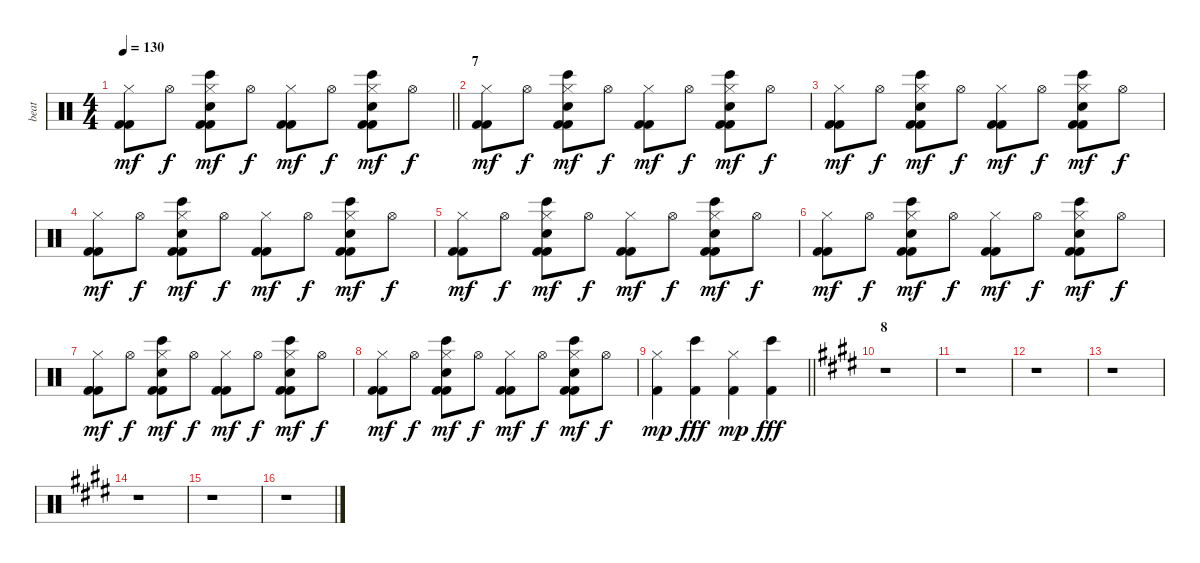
\track ("beat" "beat") {instrument percussion}
\staff {score}
\articulation defaults
\ts (4 4)
\tempo 130
\clef neutral
\barLineRight lightlight
\ks c
("Kick (hit) 2" "Kick (hit) 2" "Hi-Hat (closed)").8{dy mf} "Hi-Hat (open)".8{dy f} ("Kick (hit) 2" "Kick (hit) 2" "Bongo High (hit)" "Hand Clap (hit)" "Hi-Hat (closed)").8{dy mf} "Hi-Hat (open)".8{dy f} ("Kick (hit) 2" "Kick (hit) 2" "Hi-Hat (closed)").8{dy mf} "Hi-Hat (open)".8{dy f} ("Kick (hit) 2" "Kick (hit) 2" "Bongo High (hit)" "Hand Clap (hit)" "Hi-Hat (closed)").8{dy mf} "Hi-Hat (open)".8{dy f} |
\section ("" "7")
("Kick (hit) 2" "Kick (hit) 2" "Hi-Hat (closed)").8{dy mf} "Hi-Hat (open)".8{dy f} ("Kick (hit) 2" "Kick (hit) 2" "Bongo High (hit)" "Hand Clap (hit)" "Hi-Hat (closed)").8{dy mf} "Hi-Hat (open)".8{dy f} ("Kick (hit) 2" "Kick (hit) 2" "Hi-Hat (closed)").8{dy mf} "Hi-Hat (open)".8{dy f} ("Kick (hit) 2" "Kick (hit) 2" "Bongo High (hit)" "Hand Clap (hit)" "Hi-Hat (closed)").8{dy mf} "Hi-Hat (open)".8{dy f} |
("Kick (hit) 2" "Kick (hit) 2" "Hi-Hat (closed)").8{dy mf} "Hi-Hat (open)".8{dy f} ("Kick (hit) 2" "Kick (hit) 2" "Bongo High (hit)" "Hand Clap (hit)" "Hi-Hat (closed)").8{dy mf} "Hi-Hat (open)".8{dy f} ("Kick (hit) 2" "Kick (hit) 2" "Hi-Hat (closed)").8{dy mf} "Hi-Hat (open)".8{dy f} ("Kick (hit) 2" "Kick (hit) 2" "Bongo High (hit)" "Hand Clap (hit)" "Hi-Hat (closed)").8{dy mf} "Hi-Hat (open)".8{dy f} |
("Kick (hit) 2" "Kick (hit) 2" "Hi-Hat (closed)").8{dy mf} "Hi-Hat (open)".8{dy f} ("Kick (hit) 2" "Kick (hit) 2" "Bongo High (hit)" "Hand Clap (hit)" "Hi-Hat (closed)").8{dy mf} "Hi-Hat (open)".8{dy f} ("Kick (hit) 2" "Kick (hit) 2" "Hi-Hat (closed)").8{dy mf} "Hi-Hat (open)".8{dy f} ("Kick (hit) 2" "Kick (hit) 2" "Bongo High (hit)" "Hand Clap (hit)" "Hi-Hat (closed)").8{dy mf} "Hi-Hat (open)".8{dy f} |
("Kick (hit) 2" "Kick (hit) 2" "Hi-Hat (closed)").8{dy mf} "Hi-Hat (open)".8{dy f} ("Kick (hit) 2" "Kick (hit) 2" "Bongo High (hit)" "Hand Clap (hit)" "Hi-Hat (closed)").8{dy mf} "Hi-Hat (open)".8{dy f} ("Kick (hit) 2" "Kick (hit) 2" "Hi-Hat (closed)").8{dy mf} "Hi-Hat (open)".8{dy f} ("Kick (hit) 2" "Kick (hit) 2" "Bongo High (hit)" "Hand Clap (hit)" "Hi-Hat (closed)").8{dy mf} "Hi-Hat (open)".8{dy f} |
("Kick (hit) 2" "Kick (hit) 2" "Hi-Hat (closed)").8{dy mf} "Hi-Hat (open)".8{dy f} ("Kick (hit) 2" "Kick (hit) 2" "Bongo High (hit)" "Hand Clap (hit)" "Hi-Hat (closed)").8{dy mf} "Hi-Hat (open)".8{dy f} ("Kick (hit) 2" "Kick (hit) 2" "Hi-Hat (closed)").8{dy mf} "Hi-Hat (open)".8{dy f} ("Kick (hit) 2" "Kick (hit) 2" "Bongo High (hit)" "Hand Clap (hit)" "Hi-Hat (closed)").8{dy mf} "Hi-Hat (open)".8{dy f} |
("Kick (hit) 2" "Kick (hit) 2" "Hi-Hat (closed)").8{dy mf} "Hi-Hat (open)".8{dy f} ("Kick (hit) 2" "Kick (hit) 2" "Bongo High (hit)" "Hand Clap (hit)" "Hi-Hat (closed)").8{dy mf} "Hi-Hat (open)".8{dy f} ("Kick (hit) 2" "Kick (hit) 2" "Hi-Hat (closed)").8{dy mf} "Hi-Hat (open)".8{dy f} ("Kick (hit) 2" "Kick (hit) 2" "Bongo High (hit)" "Hand Clap (hit)" "Hi-Hat (closed)").8{dy mf} "Hi-Hat (open)".8{dy f} |
("Kick (hit) 2" "Kick (hit) 2" "Hi-Hat (closed)").8{dy mf} "Hi-Hat (open)".8{dy f} ("Kick (hit) 2" "Kick (hit) 2" "Bongo High (hit)" "Hand Clap (hit)" "Hi-Hat (closed)").8{dy mf} "Hi-Hat (open)".8{dy f} ("Kick (hit) 2" "Kick (hit) 2" "Hi-Hat (closed)").8{dy mf} "Hi-Hat (open)".8{dy f} ("Kick (hit) 2" "Kick (hit) 2" "Bongo High (hit)" "Hand Clap (hit)" "Hi-Hat (closed)").8{dy mf} "Hi-Hat (open)".8{dy f} |
\barLineRight lightlight
("Kick (hit) 2" "Hi-Hat (closed)").4{dy mp} ("Kick (hit) 2" "Bongo High (hit)").4{dy fff} ("Kick (hit) 2" "Hi-Hat (closed)").4{dy mp} ("Kick (hit) 2" "Bongo High (hit)").4{dy fff} |
\section ("" "8")
\ks e
r.1 |
r.1 |
r.1 |
r.1 |
r.1 |
r.1 |
r.1
